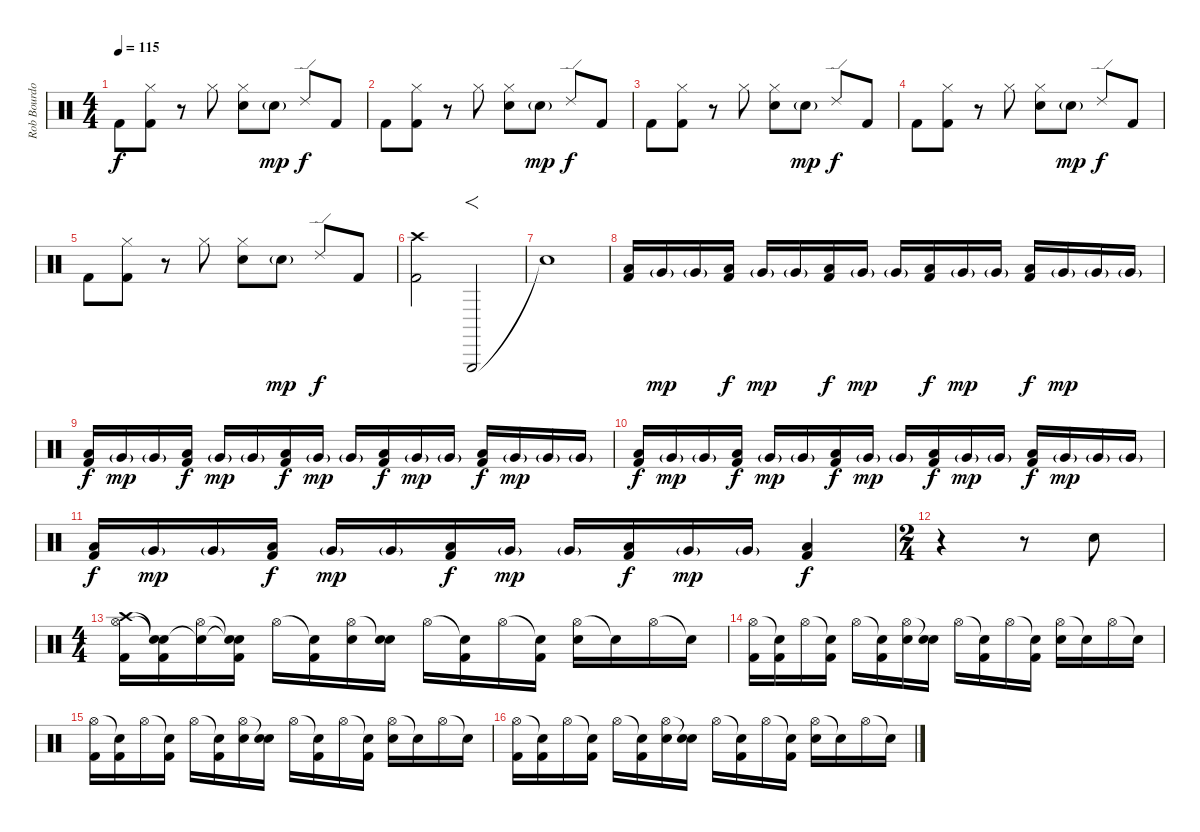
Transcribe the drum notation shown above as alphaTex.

\track ("Rob Bourdon (Drums)" "Rob Bourdo") {instrument percussion}
\staff {score}
\articulation defaults
\ts (4 4)
\tempo 115
\clef neutral
\ks c "Kick (hit) 2".8{dy f volume 6}
("Hi-Hat (closed)" "Kick (hit) 2").8 r.8 "Hi-Hat (closed)".8 ("Hi-Hat (closed)" "Electric Snare (hit)").8{volume 6} "Electric Snare (hit)"{g}.8{dy mp} "Ride (edge) 2".8{dy f} "Kick (hit) 2".8 |
"Kick (hit) 2".8{volume 6} ("Hi-Hat (closed)" "Kick (hit) 2").8 r.8 "Hi-Hat (closed)".8 ("Hi-Hat (closed)" "Electric Snare (hit)").8{volume 6} "Electric Snare (hit)"{g}.8{dy mp} "Ride (edge) 2".8{dy f} "Kick (hit) 2".8 |
"Kick (hit) 2".8{volume 6} ("Hi-Hat (closed)" "Kick (hit) 2").8 r.8 "Hi-Hat (closed)".8 ("Hi-Hat (closed)" "Electric Snare (hit)").8{volume 6} "Electric Snare (hit)"{g}.8{dy mp} "Ride (edge) 2".8{dy f} "Kick (hit) 2".8 |
"Kick (hit) 2".8{volume 6} ("Hi-Hat (closed)" "Kick (hit) 2").8 r.8 "Hi-Hat (closed)".8 ("Hi-Hat (closed)" "Electric Snare (hit)").8{volume 6} "Electric Snare (hit)"{g}.8{dy mp} "Ride (edge) 2".8{dy f} "Kick (hit) 2".8 |
"Kick (hit) 2".8{volume 6} ("Hi-Hat (closed)" "Kick (hit) 2").8 r.8 "Hi-Hat (closed)".8 ("Hi-Hat (closed)" "Electric Snare (hit)").8{volume 6} "Electric Snare (hit)"{g}.8{dy mp} "Ride (edge) 2".8{dy f} "Kick (hit) 2".8 |
("Crash high (hit)" "Kick (hit) 2").2{volume 6} "Triangle (hit)".2{f} |
"Snare (hit)"{t}.1 |
("Low Tom (hit)" "Kick (hit) 2").16{volume 10} "Very Low Tom (hit)"{g}.16{dy mp} "Very Low Tom (hit)"{g}.16 ("Low Tom (hit)" "Kick (hit) 2").16{dy f} "Very Low Tom (hit)"{g}.16{dy mp} "Very Low Tom (hit)"{g}.16 ("Low Tom (hit)" "Kick (hit) 2").16{dy f} "Very Low Tom (hit)"{g}.16{dy mp} "Very Low Tom (hit)"{g}.16 ("Low Tom (hit)" "Kick (hit) 2").16{dy f} "Very Low Tom (hit)"{g}.16{dy mp} "Very Low Tom (hit)"{g}.16 ("Low Tom (hit)" "Kick (hit) 2").16{dy f} "Very Low Tom (hit)"{g}.16{dy mp} "Very Low Tom (hit)"{g}.16 "Very Low Tom (hit)"{g}.16 |
("Low Tom (hit)" "Kick (hit) 2").16{dy f volume 10} "Very Low Tom (hit)"{g}.16{dy mp} "Very Low Tom (hit)"{g}.16 ("Low Tom (hit)" "Kick (hit) 2").16{dy f} "Very Low Tom (hit)"{g}.16{dy mp} "Very Low Tom (hit)"{g}.16 ("Low Tom (hit)" "Kick (hit) 2").16{dy f} "Very Low Tom (hit)"{g}.16{dy mp} "Very Low Tom (hit)"{g}.16 ("Low Tom (hit)" "Kick (hit) 2").16{dy f} "Very Low Tom (hit)"{g}.16{dy mp} "Very Low Tom (hit)"{g}.16 ("Low Tom (hit)" "Kick (hit) 2").16{dy f} "Very Low Tom (hit)"{g}.16{dy mp} "Very Low Tom (hit)"{g}.16 "Very Low Tom (hit)"{g}.16 |
("Low Tom (hit)" "Kick (hit) 2").16{dy f volume 10} "Very Low Tom (hit)"{g}.16{dy mp} "Very Low Tom (hit)"{g}.16 ("Low Tom (hit)" "Kick (hit) 2").16{dy f} "Very Low Tom (hit)"{g}.16{dy mp} "Very Low Tom (hit)"{g}.16 ("Low Tom (hit)" "Kick (hit) 2").16{dy f} "Very Low Tom (hit)"{g}.16{dy mp} "Very Low Tom (hit)"{g}.16 ("Low Tom (hit)" "Kick (hit) 2").16{dy f} "Very Low Tom (hit)"{g}.16{dy mp} "Very Low Tom (hit)"{g}.16 ("Low Tom (hit)" "Kick (hit) 2").16{dy f} "Very Low Tom (hit)"{g}.16{dy mp} "Very Low Tom (hit)"{g}.16 "Very Low Tom (hit)"{g}.16 |
("Low Tom (hit)" "Kick (hit) 2").16{dy f volume 10} "Very Low Tom (hit)"{g}.16{dy mp} "Very Low Tom (hit)"{g}.16 ("Low Tom (hit)" "Kick (hit) 2").16{dy f} "Very Low Tom (hit)"{g}.16{dy mp} "Very Low Tom (hit)"{g}.16 ("Low Tom (hit)" "Kick (hit) 2").16{dy f} "Very Low Tom (hit)"{g}.16{dy mp} "Very Low Tom (hit)"{g}.16 ("Low Tom (hit)" "Kick (hit) 2").16{dy f} "Very Low Tom (hit)"{g}.16{dy mp} "Very Low Tom (hit)"{g}.16 ("Low Tom (hit)" "Kick (hit) 2").4{dy f} |
\ts (2 4)
r.4 r.8 "Electric Snare (hit)".8{volume 13} |
\ts (4 4)
("Crash high (hit)" "Hi-Hat (open)" "Kick (hit) 2").16 ("Snare (hit)"{t} "Snare (hit)"{t} "Kick (hit) 2").16 ("Snare (hit)"{t} "Hi-Hat (open)").16 ("Snare (hit)"{t} "Snare (hit)"{t} "Kick (hit) 2").16 "Hi-Hat (open)".16 ("Snare (hit)"{t} "Kick (hit) 2").16 ("Hi-Hat (open)" "Electric Snare (hit)").16 ("Snare (hit)"{t} "Electric Snare (hit)").16 "Hi-Hat (open)".16 ("Snare (hit)"{t} "Kick (hit) 2").16 "Hi-Hat (open)".16 ("Snare (hit)"{t} "Kick (hit) 2").16 ("Hi-Hat (open)" "Electric Snare (hit)").16 "Snare (hit)"{t}.16 "Hi-Hat (open)".16 "Snare (hit)"{t}.16 |
("Hi-Hat (open)" "Kick (hit) 2").16 ("Snare (hit)"{t} "Kick (hit) 2").16 "Hi-Hat (open)".16 ("Snare (hit)"{t} "Kick (hit) 2").16 "Hi-Hat (open)".16 ("Snare (hit)"{t} "Kick (hit) 2").16 ("Hi-Hat (open)" "Electric Snare (hit)").16 ("Snare (hit)"{t} "Electric Snare (hit)").16 "Hi-Hat (open)".16 ("Snare (hit)"{t} "Kick (hit) 2").16 "Hi-Hat (open)".16 ("Snare (hit)"{t} "Kick (hit) 2").16 ("Hi-Hat (open)" "Electric Snare (hit)").16 "Snare (hit)"{t}.16 "Hi-Hat (open)".16 "Snare (hit)"{t}.16 |
("Hi-Hat (open)" "Kick (hit) 2").16 ("Snare (hit)"{t} "Kick (hit) 2").16 "Hi-Hat (open)".16 ("Snare (hit)"{t} "Kick (hit) 2").16 "Hi-Hat (open)".16 ("Snare (hit)"{t} "Kick (hit) 2").16 ("Hi-Hat (open)" "Electric Snare (hit)").16 ("Snare (hit)"{t} "Electric Snare (hit)").16 "Hi-Hat (open)".16 ("Snare (hit)"{t} "Kick (hit) 2").16 "Hi-Hat (open)".16 ("Snare (hit)"{t} "Kick (hit) 2").16 ("Hi-Hat (open)" "Electric Snare (hit)").16 "Snare (hit)"{t}.16 "Hi-Hat (open)".16 "Snare (hit)"{t}.16 |
("Hi-Hat (open)" "Kick (hit) 2").16 ("Snare (hit)"{t} "Kick (hit) 2").16 "Hi-Hat (open)".16 ("Snare (hit)"{t} "Kick (hit) 2").16 "Hi-Hat (open)".16 ("Snare (hit)"{t} "Kick (hit) 2").16 ("Hi-Hat (open)" "Electric Snare (hit)").16 ("Snare (hit)"{t} "Electric Snare (hit)").16 "Hi-Hat (open)".16 ("Snare (hit)"{t} "Kick (hit) 2").16 "Hi-Hat (open)".16 ("Snare (hit)"{t} "Kick (hit) 2").16 ("Hi-Hat (open)" "Electric Snare (hit)").16 "Snare (hit)"{t}.16 "Hi-Hat (open)".16 "Snare (hit)"{t}.16
